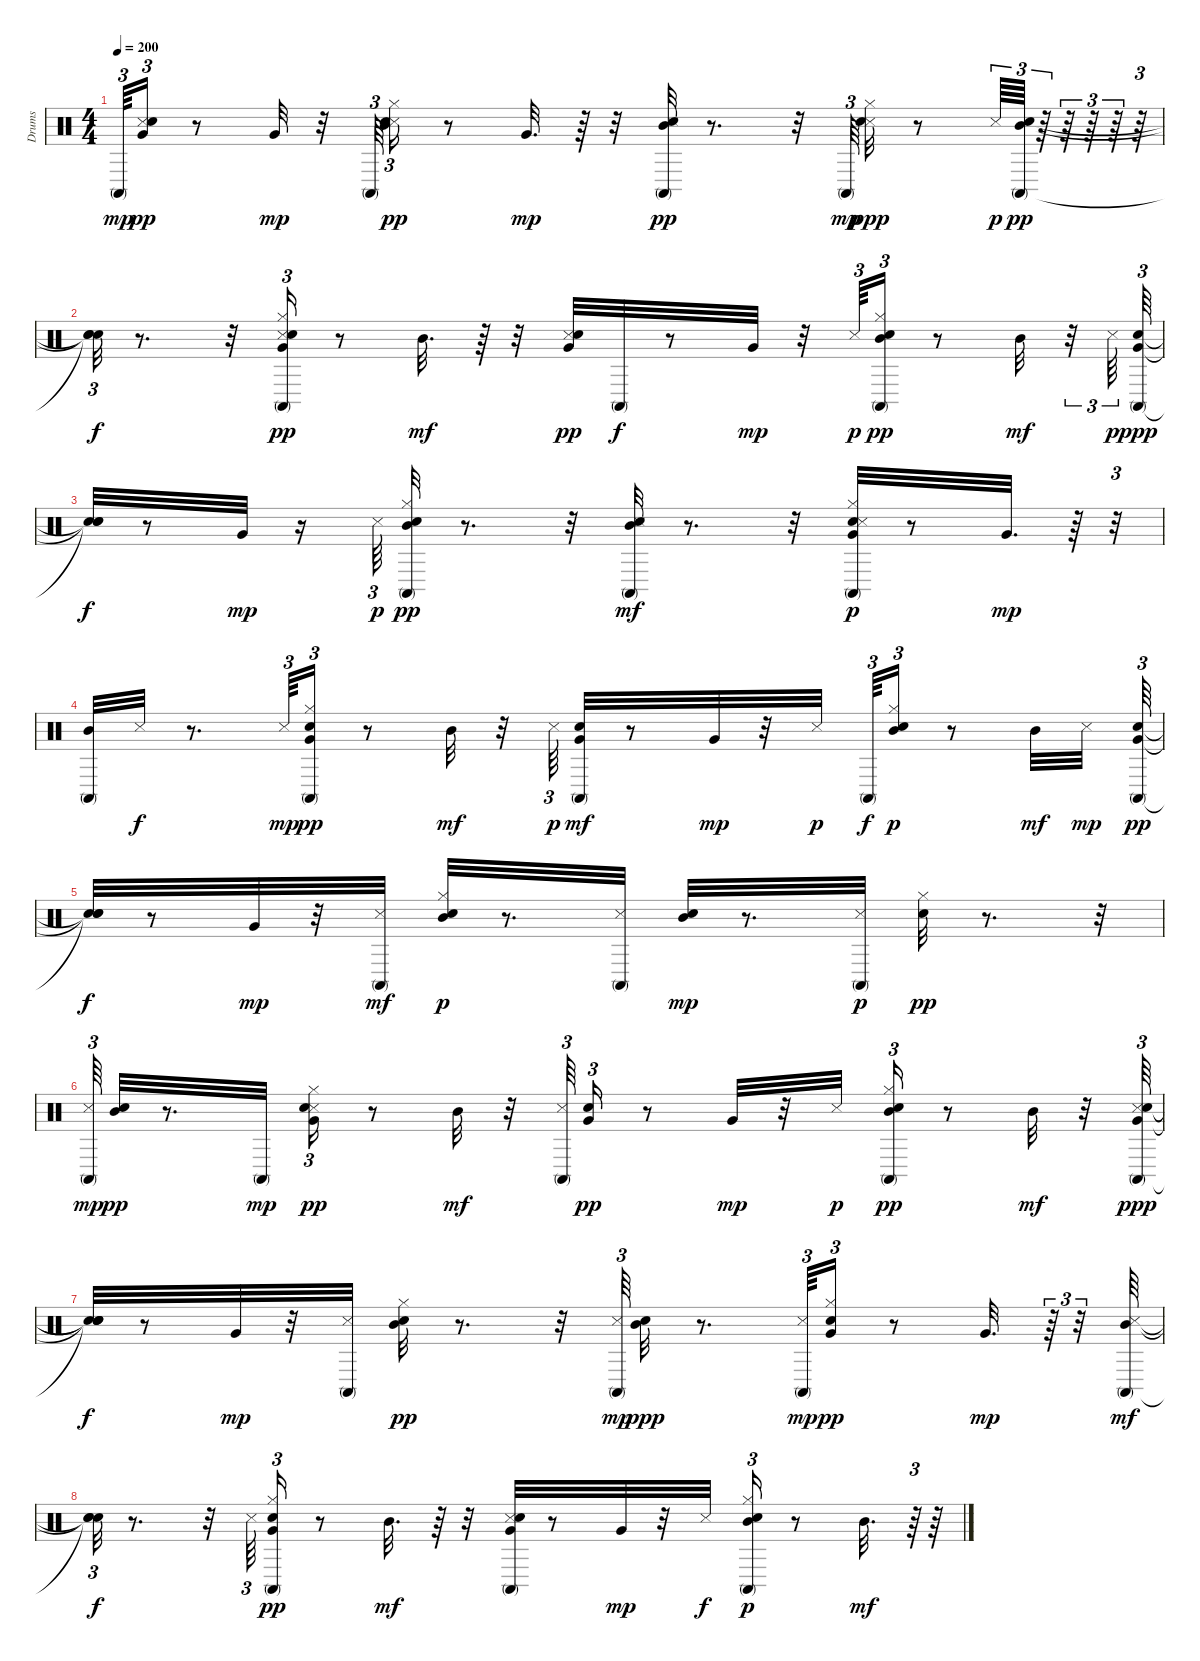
\track ("Drums" "Drums") {instrument percussion}
\staff {score}
\articulation defaults
\ts (4 4)
\tempo 200
\clef neutral
\ks c "Conga high (mute)".64{tu (3 2) dy mp}
("Very Low Tom (hit)" "Snare (side stick) 3" "Hand Clap (hit)").16{tu (3 2) dy pp} r.8 "Very Low Tom (hit)".32{dy mp} r.32 "Conga high (mute)".64{tu (3 2)} ("Hi-Hat (closed)" "Mid Tom (hit)" "Snare (side stick) 3" "Hand Clap (hit)").16{tu (3 2) dy pp} r.8 "Very Low Tom (hit)".32{d dy mp} r.64 r.32 ("Mid Tom (hit)" "Snare (side stick) 3" "Conga high (mute)" "Hand Clap (hit)").32{dy pp} r.8{d} r.32 "Conga high (mute)".64{tu (3 2) dy mp} ("Hi-Hat (closed)" "Snare (side stick) 3" "Hand Clap (hit)").32{dy ppp} r.8 "Snare (side stick) 3".64{tu (3 2) dy p} ("Mid Tom (hit)" "Conga high (mute)" "Hand Clap (hit)").64{tu (3 2) dy pp} r.64{tu (3 2)} r.64{tu (3 2)} r.64{tu (3 2)} r.64{tu (3 2)} r.64{tu (3 2)} |
("Snare (hit)"{t} "Snare (hit)"{t} "Snare (hit)"{t}).32{tu (3 2) dy f} r.8{d} r.32 ("Hi-Hat (closed)" "Very Low Tom (hit)" "Snare (side stick) 3" "Conga high (mute)" "Hand Clap (hit)").16{tu (3 2) dy pp} r.8 "Mid Tom (hit)".32{d dy mf} r.64 r.32 ("Very Low Tom (hit)" "Snare (side stick) 3" "Hand Clap (hit)").32{dy pp} "Conga high (mute)".32{dy f} r.8 "Very Low Tom (hit)".32{dy mp} r.32 "Snare (side stick) 3".64{tu (3 2) dy p} ("Hi-Hat (closed)" "Mid Tom (hit)" "Conga high (mute)" "Hand Clap (hit)").16{tu (3 2) dy pp} r.8 "Mid Tom (hit)".32{dy mf} r.32{tu (3 2)} "Snare (side stick) 3".64{tu (3 2) dy p} ("Very Low Tom (hit)" "Conga high (mute)" "Hand Clap (hit)").64{tu (3 2) dy ppp} |
("Snare (hit)"{t} "Snare (hit)"{t} "Snare (hit)"{t}).32{dy f} r.8 "Very Low Tom (hit)".32{dy mp} r.16 "Snare (side stick) 3".64{tu (3 2) dy p} ("Hi-Hat (closed)" "Mid Tom (hit)" "Conga high (mute)" "Hand Clap (hit)").32{dy pp} r.8{d} r.32 ("Mid Tom (hit)" "Snare (side stick) 3" "Hand Clap (hit)" "Conga high (mute)").32{dy mf} r.8{d} r.32 ("Hi-Hat (closed)" "Very Low Tom (hit)" "Conga high (mute)" "Hand Clap (hit)" "Snare (side stick) 3").32{dy p} r.8 "Very Low Tom (hit)".32{d dy mp} r.64 r.32{tu (3 2)} |
("Mid Tom (hit)" "Conga high (mute)").32 "Snare (side stick) 3".32{dy f} r.8{d} "Snare (side stick) 3".64{tu (3 2) dy mp} ("Hi-Hat (closed)" "Very Low Tom (hit)" "Conga high (mute)" "Hand Clap (hit)").16{tu (3 2) dy pp} r.8 "Mid Tom (hit)".32{dy mf} r.32 "Snare (side stick) 3".64{tu (3 2) dy p} ("Very Low Tom (hit)" "Hand Clap (hit)" "Conga high (mute)").32{dy mf} r.8 "Very Low Tom (hit)".32{dy mp} r.32 "Snare (side stick) 3".32{dy p} "Conga high (mute)".64{tu (3 2) dy f} ("Hi-Hat (closed)" "Mid Tom (hit)" "Hand Clap (hit)").16{tu (3 2) dy p} r.8 "Mid Tom (hit)".32{dy mf} "Snare (side stick) 3".32{dy mp beam splitsecondary} ("Conga high (mute)" "Very Low Tom (hit)" "Hand Clap (hit)").64{tu (3 2) dy pp} |
("Snare (hit)"{t} "Snare (hit)"{t} "Snare (hit)"{t}).32{dy f} r.8 "Very Low Tom (hit)".32{dy mp} r.32 ("Snare (side stick) 3" "Conga high (mute)").32{dy mf} ("Hi-Hat (closed)" "Mid Tom (hit)" "Hand Clap (hit)").32{dy p} r.8{d} ("Conga high (mute)" "Snare (side stick) 3").32 ("Mid Tom (hit)" "Hand Clap (hit)").32{dy mp} r.8{d} ("Conga high (mute)" "Snare (side stick) 3").32{dy p} ("Hi-Hat (closed)" "Hand Clap (hit)").32{dy pp} r.8{d} r.32 |
("Snare (side stick) 3" "Conga high (mute)").64{tu (3 2) dy mp} ("Mid Tom (hit)" "Hand Clap (hit)").32{dy pp} r.8{d} "Conga high (mute)".32{dy mp} ("Hi-Hat (closed)" "Very Low Tom (hit)" "Snare (side stick) 3" "Hand Clap (hit)").16{tu (3 2) dy pp} r.8 "Mid Tom (hit)".32{dy mf} r.32 ("Conga high (mute)" "Snare (side stick) 3").64{tu (3 2)} ("Very Low Tom (hit)" "Hand Clap (hit)").16{tu (3 2) dy pp} r.8 "Very Low Tom (hit)".32{dy mp} r.32 "Snare (side stick) 3".32{dy p} ("Hi-Hat (closed)" "Mid Tom (hit)" "Conga high (mute)" "Hand Clap (hit)").16{tu (3 2) dy pp} r.8 "Mid Tom (hit)".32{dy mf} r.32 ("Snare (side stick) 3" "Very Low Tom (hit)" "Conga high (mute)" "Hand Clap (hit)").64{tu (3 2) dy ppp} |
("Snare (hit)"{t} "Snare (hit)"{t} "Snare (hit)"{t} "Snare (hit)"{t}).32{dy f} r.8 "Very Low Tom (hit)".32{dy mp} r.32 ("Snare (side stick) 3" "Conga high (mute)").32 ("Hi-Hat (closed)" "Mid Tom (hit)" "Hand Clap (hit)").32{dy pp} r.8{d} r.32 ("Snare (side stick) 3" "Conga high (mute)").64{tu (3 2) dy mp} ("Mid Tom (hit)" "Hand Clap (hit)").32{dy ppp} r.8{d} ("Snare (side stick) 3" "Conga high (mute)").64{tu (3 2) dy mp} ("Hi-Hat (closed)" "Very Low Tom (hit)" "Hand Clap (hit)").16{tu (3 2) dy pp} r.8 "Very Low Tom (hit)".32{d dy mp} r.64{tu (3 2)} r.32{tu (3 2)} ("Mid Tom (hit)" "Conga high (mute)" "Snare (side stick) 3").64{dy mf} |
("Snare (hit)"{t} "Snare (hit)"{t} "Snare (hit)"{t}).32{tu (3 2) dy f} r.8{d} r.32 "Snare (side stick) 3".64{tu (3 2)} ("Hi-Hat (closed)" "Very Low Tom (hit)" "Conga high (mute)" "Hand Clap (hit)").16{tu (3 2) dy pp} r.8 "Mid Tom (hit)".32{d dy mf} r.64 r.32 ("Very Low Tom (hit)" "Snare (side stick) 3" "Hand Clap (hit)" "Conga high (mute)").32 r.8 "Very Low Tom (hit)".32{dy mp} r.32 "Snare (side stick) 3".32{dy f} ("Hi-Hat (closed)" "Mid Tom (hit)" "Conga high (mute)" "Hand Clap (hit)").16{tu (3 2) dy p} r.8 "Mid Tom (hit)".32{d dy mf} r.64{tu (3 2)} r.64
